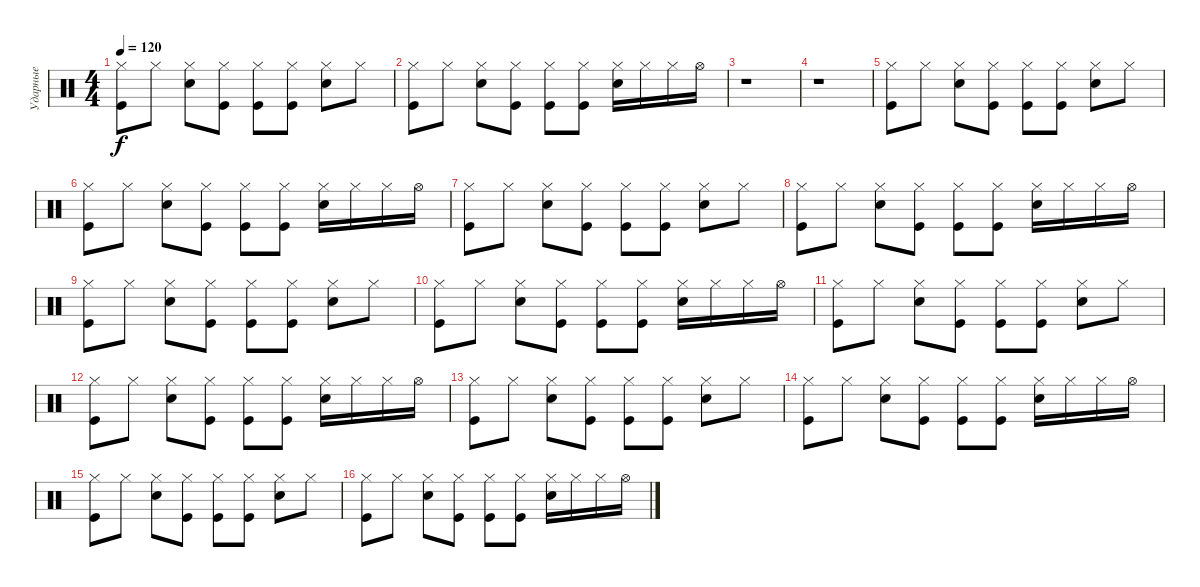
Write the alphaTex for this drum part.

\track ("Ударные" "Ударные") {instrument percussion}
\staff {score}
\articulation defaults
\ts (4 4)
\tempo 120
\clef neutral
\ks c
("Kick (hit)" "Hi-Hat (closed)").8{dy f} "Hi-Hat (closed)".8 ("Hi-Hat (closed)" "Snare (hit) 2").8 ("Hi-Hat (closed)" "Kick (hit)").8 ("Hi-Hat (closed)" "Kick (hit)").8 ("Hi-Hat (closed)" "Kick (hit)").8 ("Hi-Hat (closed)" "Snare (hit) 2").8 "Hi-Hat (closed)".8 |
("Kick (hit)" "Hi-Hat (closed)").8 "Hi-Hat (closed)".8 ("Hi-Hat (closed)" "Snare (hit) 2").8 ("Hi-Hat (closed)" "Kick (hit)").8 ("Hi-Hat (closed)" "Kick (hit)").8 ("Hi-Hat (closed)" "Kick (hit)").8 ("Hi-Hat (closed)" "Snare (hit) 2").16 "Hi-Hat (closed)".16 "Hi-Hat (closed)".16 "Hi-Hat (open)".16 |
r.1 |
r.1 |
("Kick (hit)" "Hi-Hat (closed)").8 "Hi-Hat (closed)".8 ("Hi-Hat (closed)" "Snare (hit) 2").8 ("Hi-Hat (closed)" "Kick (hit)").8 ("Hi-Hat (closed)" "Kick (hit)").8 ("Hi-Hat (closed)" "Kick (hit)").8 ("Hi-Hat (closed)" "Snare (hit) 2").8 "Hi-Hat (closed)".8 |
("Kick (hit)" "Hi-Hat (closed)").8 "Hi-Hat (closed)".8 ("Hi-Hat (closed)" "Snare (hit) 2").8 ("Hi-Hat (closed)" "Kick (hit)").8 ("Hi-Hat (closed)" "Kick (hit)").8 ("Hi-Hat (closed)" "Kick (hit)").8 ("Hi-Hat (closed)" "Snare (hit) 2").16 "Hi-Hat (closed)".16 "Hi-Hat (closed)".16 "Hi-Hat (open)".16 |
("Kick (hit)" "Hi-Hat (closed)").8 "Hi-Hat (closed)".8 ("Hi-Hat (closed)" "Snare (hit) 2").8 ("Hi-Hat (closed)" "Kick (hit)").8 ("Hi-Hat (closed)" "Kick (hit)").8 ("Hi-Hat (closed)" "Kick (hit)").8 ("Hi-Hat (closed)" "Snare (hit) 2").8 "Hi-Hat (closed)".8 |
("Kick (hit)" "Hi-Hat (closed)").8 "Hi-Hat (closed)".8 ("Hi-Hat (closed)" "Snare (hit) 2").8 ("Hi-Hat (closed)" "Kick (hit)").8 ("Hi-Hat (closed)" "Kick (hit)").8 ("Hi-Hat (closed)" "Kick (hit)").8 ("Hi-Hat (closed)" "Snare (hit) 2").16 "Hi-Hat (closed)".16 "Hi-Hat (closed)".16 "Hi-Hat (open)".16 |
("Kick (hit)" "Hi-Hat (closed)").8 "Hi-Hat (closed)".8 ("Hi-Hat (closed)" "Snare (hit) 2").8 ("Hi-Hat (closed)" "Kick (hit)").8 ("Hi-Hat (closed)" "Kick (hit)").8 ("Hi-Hat (closed)" "Kick (hit)").8 ("Hi-Hat (closed)" "Snare (hit) 2").8 "Hi-Hat (closed)".8 |
("Kick (hit)" "Hi-Hat (closed)").8 "Hi-Hat (closed)".8 ("Hi-Hat (closed)" "Snare (hit) 2").8 ("Hi-Hat (closed)" "Kick (hit)").8 ("Hi-Hat (closed)" "Kick (hit)").8 ("Hi-Hat (closed)" "Kick (hit)").8 ("Hi-Hat (closed)" "Snare (hit) 2").16 "Hi-Hat (closed)".16 "Hi-Hat (closed)".16 "Hi-Hat (open)".16 |
("Kick (hit)" "Hi-Hat (closed)").8 "Hi-Hat (closed)".8 ("Hi-Hat (closed)" "Snare (hit) 2").8 ("Hi-Hat (closed)" "Kick (hit)").8 ("Hi-Hat (closed)" "Kick (hit)").8 ("Hi-Hat (closed)" "Kick (hit)").8 ("Hi-Hat (closed)" "Snare (hit) 2").8 "Hi-Hat (closed)".8 |
("Kick (hit)" "Hi-Hat (closed)").8 "Hi-Hat (closed)".8 ("Hi-Hat (closed)" "Snare (hit) 2").8 ("Hi-Hat (closed)" "Kick (hit)").8 ("Hi-Hat (closed)" "Kick (hit)").8 ("Hi-Hat (closed)" "Kick (hit)").8 ("Hi-Hat (closed)" "Snare (hit) 2").16 "Hi-Hat (closed)".16 "Hi-Hat (closed)".16 "Hi-Hat (open)".16 |
("Kick (hit)" "Hi-Hat (closed)").8 "Hi-Hat (closed)".8 ("Hi-Hat (closed)" "Snare (hit) 2").8 ("Hi-Hat (closed)" "Kick (hit)").8 ("Hi-Hat (closed)" "Kick (hit)").8 ("Hi-Hat (closed)" "Kick (hit)").8 ("Hi-Hat (closed)" "Snare (hit) 2").8 "Hi-Hat (closed)".8 |
("Kick (hit)" "Hi-Hat (closed)").8 "Hi-Hat (closed)".8 ("Hi-Hat (closed)" "Snare (hit) 2").8 ("Hi-Hat (closed)" "Kick (hit)").8 ("Hi-Hat (closed)" "Kick (hit)").8 ("Hi-Hat (closed)" "Kick (hit)").8 ("Hi-Hat (closed)" "Snare (hit) 2").16 "Hi-Hat (closed)".16 "Hi-Hat (closed)".16 "Hi-Hat (open)".16 |
("Kick (hit)" "Hi-Hat (closed)").8 "Hi-Hat (closed)".8 ("Hi-Hat (closed)" "Snare (hit) 2").8 ("Hi-Hat (closed)" "Kick (hit)").8 ("Hi-Hat (closed)" "Kick (hit)").8 ("Hi-Hat (closed)" "Kick (hit)").8 ("Hi-Hat (closed)" "Snare (hit) 2").8 "Hi-Hat (closed)".8 |
("Kick (hit)" "Hi-Hat (closed)").8 "Hi-Hat (closed)".8 ("Hi-Hat (closed)" "Snare (hit) 2").8 ("Hi-Hat (closed)" "Kick (hit)").8 ("Hi-Hat (closed)" "Kick (hit)").8 ("Hi-Hat (closed)" "Kick (hit)").8 ("Hi-Hat (closed)" "Snare (hit) 2").16 "Hi-Hat (closed)".16 "Hi-Hat (closed)".16 "Hi-Hat (open)".16
